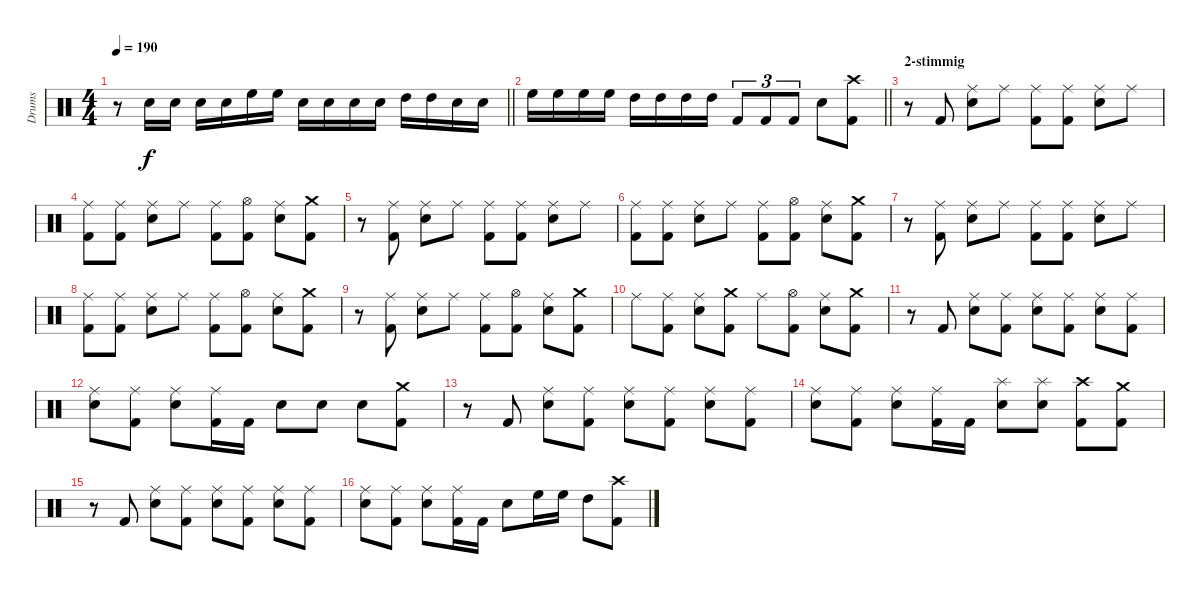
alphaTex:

\track ("Drums" "Drums") {instrument percussion}
\staff
\articulation defaults
\ts (4 4)
\tempo 190
\clef neutral
\barLineRight lightlight
\ks c
r.8{dy f} "Electric Snare (hit)".16 "Electric Snare (hit)".16 "Electric Snare (hit)".16 "Electric Snare (hit)".16 "High Floor Tom (hit)".16 "High Floor Tom (hit)".16 "Electric Snare (hit)".16 "Electric Snare (hit)".16 "Electric Snare (hit)".16 "Electric Snare (hit)".16 "High Tom (hit)".16 "High Tom (hit)".16 "Electric Snare (hit)".16 "Electric Snare (hit)".16 |
\barLineRight lightlight "High Floor Tom (hit)".16 "High Floor Tom (hit)".16 "High Floor Tom (hit)".16 "High Floor Tom (hit)".16 "High Tom (hit)".16 "High Tom (hit)".16 "High Tom (hit)".16 "High Tom (hit)".16 "Kick (hit) 2".8{tu (3 2)} "Kick (hit) 2".8{tu (3 2)} "Kick (hit) 2".8{tu (3 2)} "Electric Snare (hit)".8
("Crash high (hit)" "Kick (hit) 2").8 |
\section ("" "2-stimmig")
r.8 "Kick (hit) 2".8 ("Ride (middle)" "Electric Snare (hit)").8 "Ride (middle)".8 ("Ride (middle)" "Kick (hit) 2").8 ("Ride (middle)" "Kick (hit) 2").8 ("Ride (middle)" "Electric Snare (hit)").8 "Ride (middle)".8 |
("Ride (middle)" "Kick (hit) 2").8 ("Ride (middle)" "Kick (hit) 2").8 ("Ride (middle)" "Electric Snare (hit)").8 "Ride (middle)".8 ("Ride (middle)" "Kick (hit) 2").8 ("Hi-Hat (open)" "Kick (hit) 2").8 ("Ride (middle)" "Electric Snare (hit)").8 ("Crash medium (hit)" "Kick (hit) 2").8 |
r.8 ("Ride (middle)" "Kick (hit) 2").8 ("Ride (middle)" "Electric Snare (hit)").8 "Ride (middle)".8 ("Ride (middle)" "Kick (hit) 2").8 ("Ride (middle)" "Kick (hit) 2").8 ("Ride (middle)" "Electric Snare (hit)").8 "Ride (middle)".8 |
("Ride (middle)" "Kick (hit) 2").8 ("Ride (middle)" "Kick (hit) 2").8 ("Ride (middle)" "Electric Snare (hit)").8 "Ride (middle)".8 ("Ride (middle)" "Kick (hit) 2").8 ("Hi-Hat (open)" "Kick (hit) 2").8 ("Ride (middle)" "Electric Snare (hit)").8 ("Crash medium (hit)" "Kick (hit) 2").8 |
r.8 ("Ride (middle)" "Kick (hit) 2").8 ("Ride (middle)" "Electric Snare (hit)").8 "Ride (middle)".8 ("Ride (middle)" "Kick (hit) 2").8 ("Ride (middle)" "Kick (hit) 2").8 ("Ride (middle)" "Electric Snare (hit)").8 "Ride (middle)".8 |
("Ride (middle)" "Kick (hit) 2").8 ("Ride (middle)" "Kick (hit) 2").8 ("Ride (middle)" "Electric Snare (hit)").8 "Ride (middle)".8 ("Ride (middle)" "Kick (hit) 2").8 ("Hi-Hat (open)" "Kick (hit) 2").8 ("Ride (middle)" "Electric Snare (hit)").8 ("Crash medium (hit)" "Kick (hit) 2").8 |
r.8 ("Ride (middle)" "Kick (hit) 2").8 ("Ride (middle)" "Electric Snare (hit)").8 "Ride (middle)".8 ("Ride (middle)" "Kick (hit) 2").8 ("Hi-Hat (open)" "Kick (hit) 2").8 ("Ride (middle)" "Electric Snare (hit)").8 ("Crash medium (hit)" "Kick (hit) 2").8 |
"Ride (middle)".8 ("Ride (middle)" "Kick (hit) 2").8 ("Ride (middle)" "Electric Snare (hit)").8 ("Crash medium (hit)" "Kick (hit) 2").8 "Ride (middle)".8 ("Hi-Hat (open)" "Kick (hit) 2").8 ("Ride (middle)" "Electric Snare (hit)").8 ("Crash medium (hit)" "Kick (hit) 2").8 |
r.8 "Kick (hit) 2".8 ("Ride (middle)" "Electric Snare (hit)").8 ("Ride (middle)" "Kick (hit) 2").8 ("Ride (middle)" "Electric Snare (hit)").8 ("Ride (middle)" "Kick (hit) 2").8 ("Ride (middle)" "Electric Snare (hit)").8 ("Ride (middle)" "Kick (hit) 2").8 |
("Ride (middle)" "Electric Snare (hit)").8 ("Ride (middle)" "Kick (hit) 2").8 ("Ride (middle)" "Electric Snare (hit)").8 ("Ride (middle)" "Kick (hit) 2").16 "Kick (hit) 2".16 "Electric Snare (hit)".8 "Electric Snare (hit)".8 "Electric Snare (hit)".8 ("Crash medium (hit)" "Kick (hit) 2").8 |
r.8 "Kick (hit) 2".8 ("Ride (middle)" "Electric Snare (hit)").8 ("Ride (middle)" "Kick (hit) 2").8 ("Ride (middle)" "Electric Snare (hit)").8 ("Ride (middle)" "Kick (hit) 2").8 ("Ride (middle)" "Electric Snare (hit)").8 ("Ride (middle)" "Kick (hit) 2").8 |
("Ride (middle)" "Electric Snare (hit)").8 ("Ride (middle)" "Kick (hit) 2").8 ("Ride (middle)" "Electric Snare (hit)").8 ("Ride (middle)" "Kick (hit) 2").16 "Kick (hit) 2".16 ("Splash (hit)" "Electric Snare (hit)").8 ("Splash (hit)" "Electric Snare (hit)").8 ("Crash high (hit)" "Kick (hit) 2").8 ("Crash medium (hit)" "Kick (hit) 2").8 |
r.8 "Kick (hit) 2".8 ("Ride (middle)" "Electric Snare (hit)").8 ("Ride (middle)" "Kick (hit) 2").8 ("Ride (middle)" "Electric Snare (hit)").8 ("Ride (middle)" "Kick (hit) 2").8 ("Ride (middle)" "Electric Snare (hit)").8 ("Ride (middle)" "Kick (hit) 2").8 |
("Ride (middle)" "Electric Snare (hit)").8 ("Ride (middle)" "Kick (hit) 2").8 ("Ride (middle)" "Electric Snare (hit)").8 ("Ride (middle)" "Kick (hit) 2").16 "Kick (hit) 2".16 "Electric Snare (hit)".8 "High Floor Tom (hit)".16 "High Floor Tom (hit)".16 "High Tom (hit)".8 ("Crash high (hit)" "Kick (hit) 2").8
